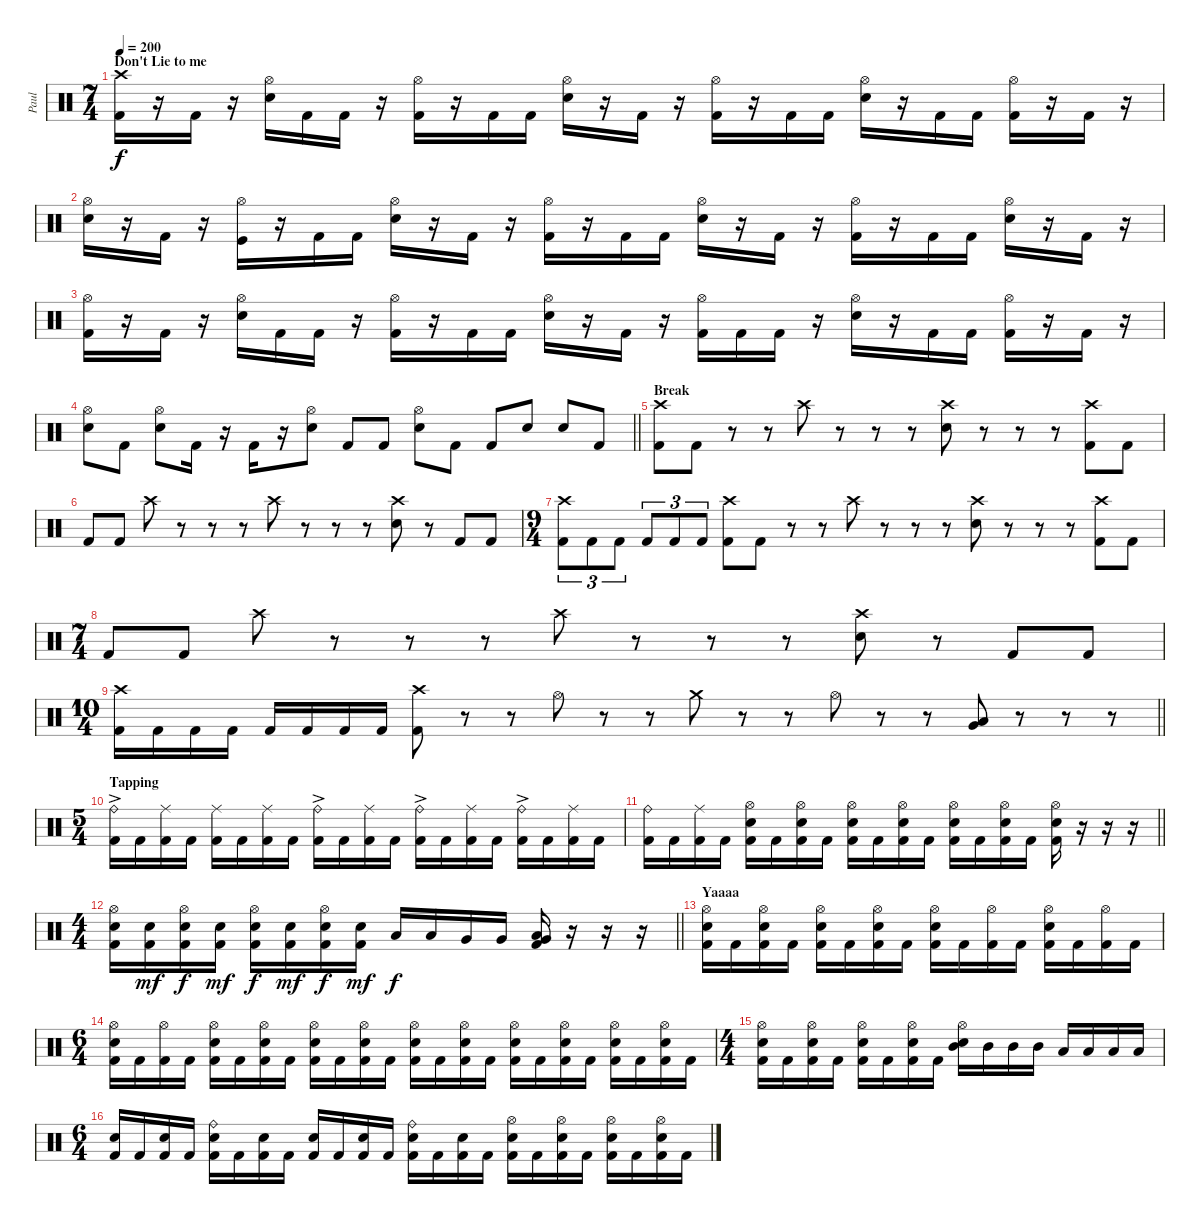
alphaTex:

\track ("Paul " "Paul ") {instrument percussion}
\staff {score}
\articulation defaults
\ts (7 4)
\section ("" "Don't Lie to me")
\tempo 200
\clef neutral
\ks c
("Kick (hit) 2" "Crash high (hit)").16{dy f} r.16 "Kick (hit) 2".16 r.16 ("Electric Snare (hit)" "Hi-Hat (open)").16 "Kick (hit) 2".16 "Kick (hit) 2".16 r.16 ("Kick (hit) 2" "Hi-Hat (open)").16 r.16 "Kick (hit) 2".16 "Kick (hit) 2".16 ("Electric Snare (hit)" "Hi-Hat (open)").16 r.16 "Kick (hit) 2".16 r.16 ("Kick (hit) 2" "Hi-Hat (open)").16 r.16 "Kick (hit) 2".16 "Kick (hit) 2".16 ("Electric Snare (hit)" "Hi-Hat (open)").16 r.16 "Kick (hit) 2".16 "Kick (hit) 2".16 ("Kick (hit) 2" "Hi-Hat (open)").16 r.16 "Kick (hit) 2".16 r.16 |
("Electric Snare (hit)" "Hi-Hat (open)").16 r.16 "Kick (hit) 2".16 r.16 ("Kick (hit)" "Hi-Hat (open)").16 r.16 "Kick (hit) 2".16 "Kick (hit) 2".16 ("Electric Snare (hit)" "Hi-Hat (open)").16 r.16 "Kick (hit) 2".16 r.16 ("Kick (hit) 2" "Hi-Hat (open)").16 r.16 "Kick (hit) 2".16 "Kick (hit) 2".16 ("Electric Snare (hit)" "Hi-Hat (open)").16 r.16 "Kick (hit) 2".16 r.16 ("Kick (hit) 2" "Hi-Hat (open)").16 r.16 "Kick (hit) 2".16 "Kick (hit) 2".16 ("Electric Snare (hit)" "Hi-Hat (open)").16 r.16 "Kick (hit) 2".16 r.16 |
("Kick (hit) 2" "Hi-Hat (open)").16 r.16 "Kick (hit) 2".16 r.16 ("Electric Snare (hit)" "Hi-Hat (open)").16 "Kick (hit) 2".16 "Kick (hit) 2".16 r.16 ("Kick (hit) 2" "Hi-Hat (open)").16 r.16 "Kick (hit) 2".16 "Kick (hit) 2".16 ("Electric Snare (hit)" "Hi-Hat (open)").16 r.16 "Kick (hit) 2".16 r.16 ("Kick (hit) 2" "Hi-Hat (open)").16 "Kick (hit) 2".16 "Kick (hit) 2".16 r.16 ("Electric Snare (hit)" "Hi-Hat (open)").16 r.16 "Kick (hit) 2".16 "Kick (hit) 2".16 ("Kick (hit) 2" "Hi-Hat (open)").16 r.16 "Kick (hit) 2".16 r.16 |
\barLineRight lightlight
("Electric Snare (hit)" "Hi-Hat (open)").8 "Kick (hit) 2".8 ("Electric Snare (hit)" "Hi-Hat (open)").8 "Kick (hit) 2".16 r.16 "Kick (hit) 2".16 r.16 ("Electric Snare (hit)" "Hi-Hat (open)").8 "Kick (hit) 2".8 "Kick (hit) 2".8 ("Electric Snare (hit)" "Hi-Hat (open)").8 "Kick (hit) 2".8 "Kick (hit) 2".8 "Electric Snare (hit)".8 "Electric Snare (hit)".8 "Kick (hit) 2".8 |
\section ("" "Break")
("Kick (hit) 2" "Crash high (hit)").8 "Kick (hit) 2".8 r.8 r.8 "Crash high (hit)".8 r.8 r.8 r.8 ("Electric Snare (hit)" "Crash high (hit)").8 r.8 r.8 r.8 ("Kick (hit) 2" "Crash high (hit)").8 "Kick (hit) 2".8 |
"Kick (hit) 2".8 "Kick (hit) 2".8 "Crash high (hit)".8 r.8 r.8 r.8 "Crash high (hit)".8 r.8 r.8 r.8 ("Electric Snare (hit)" "Crash high (hit)").8 r.8 "Kick (hit) 2".8 "Kick (hit) 2".8 |
\ts (9 4)
("Kick (hit) 2" "Crash high (hit)").8{tu (3 2)} "Kick (hit) 2".8{tu (3 2)} "Kick (hit) 2".8{tu (3 2)} "Kick (hit) 2".8{tu (3 2)} "Kick (hit) 2".8{tu (3 2)} "Kick (hit) 2".8{tu (3 2)} ("Kick (hit) 2" "Crash high (hit)").8 "Kick (hit) 2".8 r.8 r.8 "Crash high (hit)".8 r.8 r.8 r.8 ("Electric Snare (hit)" "Crash high (hit)").8 r.8 r.8 r.8 ("Kick (hit) 2" "Crash high (hit)").8 "Kick (hit) 2".8 |
\ts (7 4)
"Kick (hit) 2".8 "Kick (hit) 2".8 "Crash high (hit)".8 r.8 r.8 r.8 "Crash high (hit)".8 r.8 r.8 r.8 ("Electric Snare (hit)" "Crash high (hit)").8 r.8 "Kick (hit) 2".8 "Kick (hit) 2".8 |
\ts (10 4)
\barLineRight lightlight
("Kick (hit) 2" "Crash high (hit)").16 "Kick (hit) 2".16 "Kick (hit) 2".16 "Kick (hit) 2".16 "Kick (hit) 2".16 "Kick (hit) 2".16 "Kick (hit) 2".16 "Kick (hit) 2".16 ("Kick (hit) 2" "Crash high (hit)").8 r.8 r.8 "Hi-Hat (open)".8 r.8 r.8 "Crash medium (hit)".8 r.8 r.8 "Hi-Hat (open)".8 r.8 r.8 ("Low Floor Tom (hit)" "Very Low Tom (hit)").8 r.8 r.8 r.8 |
\ts (5 4)
\section ("" "Tapping")
("Kick (hit) 2" "Ride (bell)"{ac}).16 "Kick (hit) 2".16 ("Kick (hit) 2" "Ride (middle)").16 "Kick (hit) 2".16 ("Kick (hit) 2" "Ride (middle)").16 "Kick (hit) 2".16 ("Kick (hit) 2" "Ride (middle)").16 "Kick (hit) 2".16 ("Kick (hit) 2" "Ride (bell)"{ac}).16 "Kick (hit) 2".16 ("Kick (hit) 2" "Ride (middle)").16 "Kick (hit) 2".16 ("Kick (hit) 2" "Ride (bell)"{ac}).16 "Kick (hit) 2".16 ("Kick (hit) 2" "Ride (middle)").16 "Kick (hit) 2".16 ("Kick (hit) 2" "Ride (bell)"{ac}).16 "Kick (hit) 2".16 ("Kick (hit) 2" "Ride (middle)").16 "Kick (hit) 2".16 |
\barLineRight lightlight
("Kick (hit) 2" "Ride (bell)").16 "Kick (hit) 2".16 ("Kick (hit) 2" "Ride (middle)").16 "Kick (hit) 2".16 ("Kick (hit) 2" "Hi-Hat (open)" "Electric Snare (hit)").16 "Kick (hit) 2".16 ("Kick (hit) 2" "Hi-Hat (open)" "Electric Snare (hit)").16 "Kick (hit) 2".16 ("Kick (hit) 2" "Hi-Hat (open)" "Electric Snare (hit)").16 "Kick (hit) 2".16 ("Kick (hit) 2" "Hi-Hat (open)" "Electric Snare (hit)").16 "Kick (hit) 2".16 ("Kick (hit) 2" "Hi-Hat (open)" "Electric Snare (hit)").16 "Kick (hit) 2".16 ("Kick (hit) 2" "Hi-Hat (open)" "Electric Snare (hit)").16 "Kick (hit) 2".16 ("Kick (hit) 2" "Hi-Hat (open)" "Electric Snare (hit)").16 r.16 r.16 r.16 |
\ts (4 4)
\section ("" "")
\barLineRight lightlight
("Kick (hit) 2" "Hi-Hat (open)" "Electric Snare (hit)").16 ("Kick (hit) 2" "Electric Snare (hit)").16{dy mf} ("Kick (hit) 2" "Hi-Hat (open)" "Electric Snare (hit)").16{dy f} ("Kick (hit) 2" "Electric Snare (hit)").16{dy mf} ("Kick (hit) 2" "Hi-Hat (open)" "Electric Snare (hit)").16{dy f} ("Kick (hit) 2" "Electric Snare (hit)").16{dy mf} ("Kick (hit) 2" "Hi-Hat (open)" "Electric Snare (hit)").16{dy f} ("Kick (hit) 2" "Electric Snare (hit)").16{dy mf} "Low Tom (hit)".16{dy f} "Low Tom (hit)".16 "Very Low Tom (hit)".16 "Very Low Tom (hit)".16 ("Very Low Tom (hit)" "Low Floor Tom (hit)" "Kick (hit) 2").16 r.16 r.16 r.16 |
\section ("" "Yaaaa")
("Kick (hit) 2" "Hi-Hat (open)" "Electric Snare (hit)").16 "Kick (hit) 2".16 ("Kick (hit) 2" "Hi-Hat (open)" "Electric Snare (hit)").16 "Kick (hit) 2".16 ("Kick (hit) 2" "Hi-Hat (open)" "Electric Snare (hit)").16 "Kick (hit) 2".16 ("Kick (hit) 2" "Hi-Hat (open)" "Electric Snare (hit)").16 "Kick (hit) 2".16 ("Kick (hit) 2" "Hi-Hat (open)" "Electric Snare (hit)").16 "Kick (hit) 2".16 ("Kick (hit) 2" "Hi-Hat (open)").16 "Kick (hit) 2".16 ("Kick (hit) 2" "Hi-Hat (open)" "Electric Snare (hit)").16 "Kick (hit) 2".16 ("Kick (hit) 2" "Hi-Hat (open)").16 "Kick (hit) 2".16 |
\ts (6 4)
("Kick (hit) 2" "Hi-Hat (open)" "Electric Snare (hit)").16 "Kick (hit) 2".16 ("Kick (hit) 2" "Hi-Hat (open)").16 "Kick (hit) 2".16 ("Kick (hit) 2" "Hi-Hat (open)" "Electric Snare (hit)").16 "Kick (hit) 2".16 ("Kick (hit) 2" "Hi-Hat (open)" "Electric Snare (hit)").16 "Kick (hit) 2".16 ("Kick (hit) 2" "Hi-Hat (open)" "Electric Snare (hit)").16 "Kick (hit) 2".16 ("Kick (hit) 2" "Hi-Hat (open)" "Electric Snare (hit)").16 "Kick (hit) 2".16 ("Kick (hit) 2" "Hi-Hat (open)" "Electric Snare (hit)").16 "Kick (hit) 2".16 ("Kick (hit) 2" "Hi-Hat (open)" "Electric Snare (hit)").16 "Kick (hit) 2".16 ("Kick (hit) 2" "Hi-Hat (open)" "Electric Snare (hit)").16 "Kick (hit) 2".16 ("Kick (hit) 2" "Hi-Hat (open)" "Electric Snare (hit)").16 "Kick (hit) 2".16 ("Kick (hit) 2" "Hi-Hat (open)" "Electric Snare (hit)").16 "Kick (hit) 2".16 ("Kick (hit) 2" "Hi-Hat (open)" "Electric Snare (hit)").16 "Kick (hit) 2".16 |
\ts (4 4)
("Kick (hit) 2" "Hi-Hat (open)" "Electric Snare (hit)").16 "Kick (hit) 2".16 ("Kick (hit) 2" "Hi-Hat (open)" "Electric Snare (hit)").16 "Kick (hit) 2".16 ("Kick (hit) 2" "Hi-Hat (open)" "Electric Snare (hit)").16 "Kick (hit) 2".16 ("Kick (hit) 2" "Hi-Hat (open)" "Electric Snare (hit)").16 "Kick (hit) 2".16 ("Mid Tom (hit)" "Hi-Hat (open)" "Electric Snare (hit)").16 "Mid Tom (hit)".16 "Mid Tom (hit)".16 "Mid Tom (hit)".16 "Low Tom (hit)".16 "Low Tom (hit)".16 "Low Tom (hit)".16 "Low Tom (hit)".16 |
\ts (6 4)
("Kick (hit) 2" "Electric Snare (hit)").16 "Kick (hit) 2".16 ("Kick (hit) 2" "Electric Snare (hit)").16 "Kick (hit) 2".16 ("Kick (hit) 2" "Electric Snare (hit)" "Ride (bell)").16 "Kick (hit) 2".16 ("Kick (hit) 2" "Electric Snare (hit)").16 "Kick (hit) 2".16 ("Kick (hit) 2" "Electric Snare (hit)").16 "Kick (hit) 2".16 ("Kick (hit) 2" "Electric Snare (hit)").16 "Kick (hit) 2".16 ("Kick (hit) 2" "Electric Snare (hit)" "Ride (bell)").16 "Kick (hit) 2".16 ("Kick (hit) 2" "Electric Snare (hit)").16 "Kick (hit) 2".16 ("Kick (hit) 2" "Electric Snare (hit)" "Hi-Hat (open)").16 "Kick (hit) 2".16 ("Kick (hit) 2" "Electric Snare (hit)" "Hi-Hat (open)").16 "Kick (hit) 2".16 ("Kick (hit) 2" "Electric Snare (hit)" "Hi-Hat (open)").16 "Kick (hit) 2".16 ("Kick (hit) 2" "Electric Snare (hit)" "Hi-Hat (open)").16 "Kick (hit) 2".16
